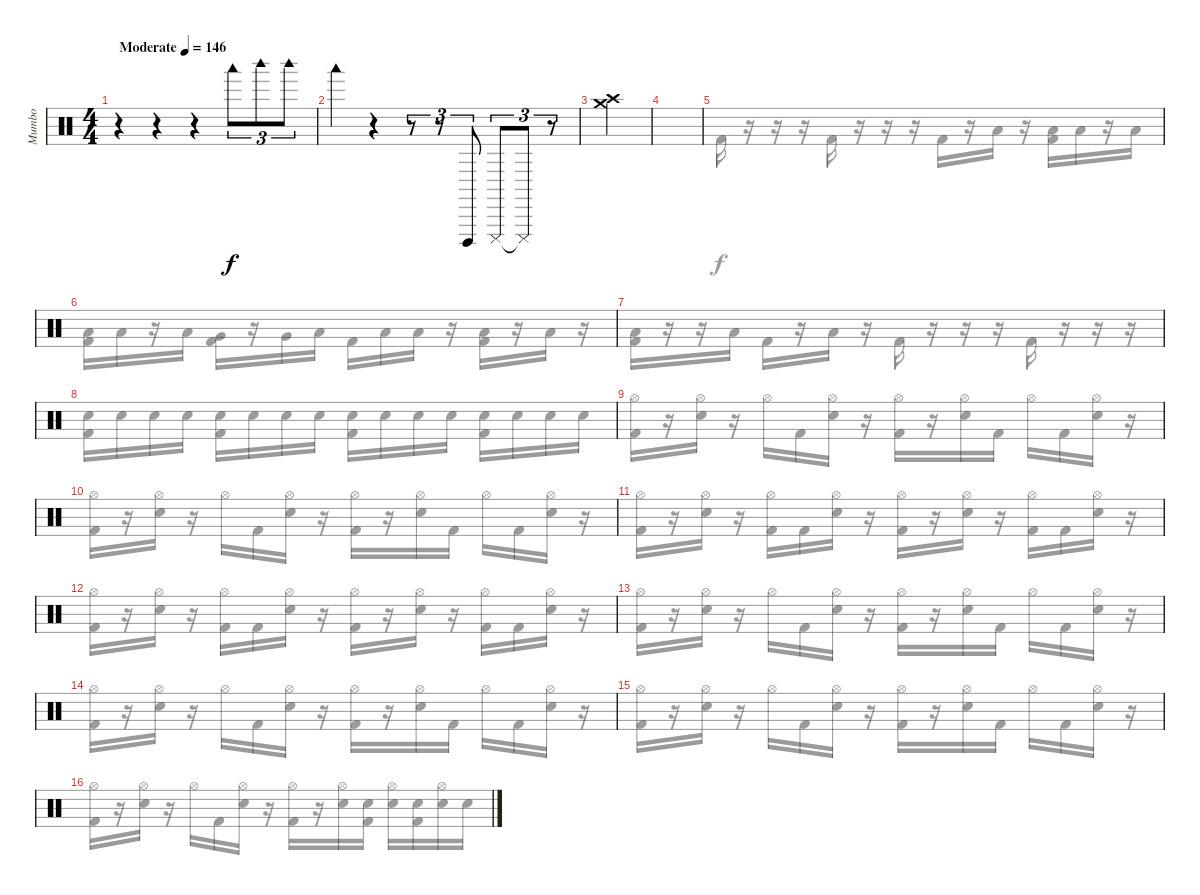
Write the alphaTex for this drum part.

\track ("Mumbo" "Mumbo") {instrument percussion}
\staff {score}
\articulation defaults
\voice
\ts (4 4)
\tempo (146 "Moderate")
\clef neutral
\ks c
r.4{dy f} r.4 r.4 "Woodblock low (hit)".8{tu (3 2)} "Woodblock high (hit)".8{tu (3 2)} "Woodblock high (hit)".8{tu (3 2)} |
"Woodblock low (hit)".4 r.4 r.8{tu (3 2)} r.8{tu (3 2)} "Cuica (open)".8{tu (3 2)} "Cuica (mute)".8{tu (3 2)} "Cuica (mute)"{t}.8{tu (3 2)} r.8{tu (3 2)} |
("Crash medium (hit)" "Crash high (hit)").4 |
|
|
|
|
|
|
|
|
|
|
|
|
\voice
\clef neutral
\ottava regular
\simile none
\ks c
|
|
|
|
"Kick (hit) 2".16 r.16 r.16 r.16 "Kick (hit) 2".16 r.16 r.16 r.16 "Kick (hit) 2".16 r.16 "Low Tom (hit)".16 r.16 ("Low Tom (hit)" "Kick (hit) 2").16 "Low Tom (hit)".16 r.16 "Low Tom (hit)".16 |
("Low Tom (hit)" "Kick (hit) 2").16 "Low Tom (hit)".16 r.16 "Low Tom (hit)".16 ("Very Low Tom (hit)" "Kick (hit) 2").16 r.16 "Very Low Tom (hit)".16 "Low Floor Tom (hit)".16 "Kick (hit) 2".16 "Low Floor Tom (hit)".16 "Low Floor Tom (hit)".16 r.16 ("Low Floor Tom (hit)" "Kick (hit) 2").16 r.16 "Low Floor Tom (hit)".16 r.16 |
("Low Floor Tom (hit)" "Kick (hit) 2").16 r.16 r.16 "Low Floor Tom (hit)".16 "Kick (hit) 2".16 r.16 "Low Floor Tom (hit)".16 r.16 "Kick (hit) 2".16 r.16 r.16 r.16 "Kick (hit) 2".16 r.16 r.16 r.16 |
("Snare (hit) 2" "Kick (hit) 2").16 "Snare (hit) 2".16 "Snare (hit) 2".16 "Snare (hit) 2".16 ("Snare (hit) 2" "Kick (hit) 2").16 "Snare (hit) 2".16 "Snare (hit) 2".16 "Snare (hit) 2".16 ("Snare (hit) 2" "Kick (hit) 2").16 "Snare (hit) 2".16 "Snare (hit) 2".16 "Snare (hit) 2".16 ("Snare (hit) 2" "Kick (hit) 2").16 "Snare (hit) 2".16 "Snare (hit) 2".16 "Snare (hit) 2".16 |
("Hi-Hat (open)" "Kick (hit) 2").16 r.16 ("Hi-Hat (open)" "Snare (hit) 2").16 r.16 "Hi-Hat (open)".16 "Kick (hit) 2".16 ("Hi-Hat (open)" "Snare (hit) 2").16 r.16 ("Hi-Hat (open)" "Kick (hit) 2").16 r.16 ("Hi-Hat (open)" "Snare (hit) 2").16 "Kick (hit) 2".16 "Hi-Hat (open)".16 "Kick (hit) 2".16 ("Hi-Hat (open)" "Snare (hit) 2").16 r.16 |
("Hi-Hat (open)" "Kick (hit) 2").16 r.16 ("Hi-Hat (open)" "Snare (hit) 2").16 r.16 "Hi-Hat (open)".16 "Kick (hit) 2".16 ("Hi-Hat (open)" "Snare (hit) 2").16 r.16 ("Hi-Hat (open)" "Kick (hit) 2").16 r.16 ("Hi-Hat (open)" "Snare (hit) 2").16 "Kick (hit) 2".16 "Hi-Hat (open)".16 "Kick (hit) 2".16 ("Hi-Hat (open)" "Snare (hit) 2").16 r.16 |
("Hi-Hat (open)" "Kick (hit) 2").16 r.16 ("Hi-Hat (open)" "Snare (hit) 2").16 r.16 ("Hi-Hat (open)" "Kick (hit) 2").16 "Kick (hit) 2".16 ("Hi-Hat (open)" "Snare (hit) 2").16 r.16 ("Hi-Hat (open)" "Kick (hit) 2").16 r.16 ("Hi-Hat (open)" "Snare (hit) 2").16 r.16 ("Hi-Hat (open)" "Kick (hit) 2").16 "Kick (hit) 2".16 ("Hi-Hat (open)" "Snare (hit) 2").16 r.16 |
("Hi-Hat (open)" "Kick (hit) 2").16 r.16 ("Hi-Hat (open)" "Snare (hit) 2").16 r.16 ("Hi-Hat (open)" "Kick (hit) 2").16 "Kick (hit) 2".16 ("Hi-Hat (open)" "Snare (hit) 2").16 r.16 ("Hi-Hat (open)" "Kick (hit) 2").16 r.16 ("Hi-Hat (open)" "Snare (hit) 2").16 r.16 ("Hi-Hat (open)" "Kick (hit) 2").16 "Kick (hit) 2".16 ("Hi-Hat (open)" "Snare (hit) 2").16 r.16 |
("Hi-Hat (open)" "Kick (hit) 2").16 r.16 ("Hi-Hat (open)" "Snare (hit) 2").16 r.16 "Hi-Hat (open)".16 "Kick (hit) 2".16 ("Hi-Hat (open)" "Snare (hit) 2").16 r.16 ("Hi-Hat (open)" "Kick (hit) 2").16 r.16 ("Hi-Hat (open)" "Snare (hit) 2").16 "Kick (hit) 2".16 "Hi-Hat (open)".16 "Kick (hit) 2".16 ("Hi-Hat (open)" "Snare (hit) 2").16 r.16 |
("Hi-Hat (open)" "Kick (hit) 2").16 r.16 ("Hi-Hat (open)" "Snare (hit) 2").16 r.16 "Hi-Hat (open)".16 "Kick (hit) 2".16 ("Hi-Hat (open)" "Snare (hit) 2").16 r.16 ("Hi-Hat (open)" "Kick (hit) 2").16 r.16 ("Hi-Hat (open)" "Snare (hit) 2").16 "Kick (hit) 2".16 "Hi-Hat (open)".16 "Kick (hit) 2".16 ("Hi-Hat (open)" "Snare (hit) 2").16 r.16 |
("Hi-Hat (open)" "Kick (hit) 2").16 r.16 ("Hi-Hat (open)" "Snare (hit) 2").16 r.16 "Hi-Hat (open)".16 "Kick (hit) 2".16 ("Hi-Hat (open)" "Snare (hit) 2").16 r.16 ("Hi-Hat (open)" "Kick (hit) 2").16 r.16 ("Hi-Hat (open)" "Snare (hit) 2").16 "Kick (hit) 2".16 "Hi-Hat (open)".16 "Kick (hit) 2".16 ("Hi-Hat (open)" "Snare (hit) 2").16 r.16 |
("Hi-Hat (open)" "Kick (hit) 2").16 r.16 ("Hi-Hat (open)" "Snare (hit) 2").16 r.16 "Hi-Hat (open)".16 "Kick (hit) 2".16 ("Hi-Hat (open)" "Snare (hit) 2").16 r.16 ("Hi-Hat (open)" "Kick (hit) 2").16 r.16 ("Hi-Hat (open)" "Snare (hit) 2").16 ("Snare (hit) 2" "Kick (hit) 2").16 ("Hi-Hat (open)" "Snare (hit) 2").16 ("Snare (hit) 2" "Kick (hit) 2").16 ("Hi-Hat (open)" "Snare (hit) 2").16 "Snare (hit) 2".16
